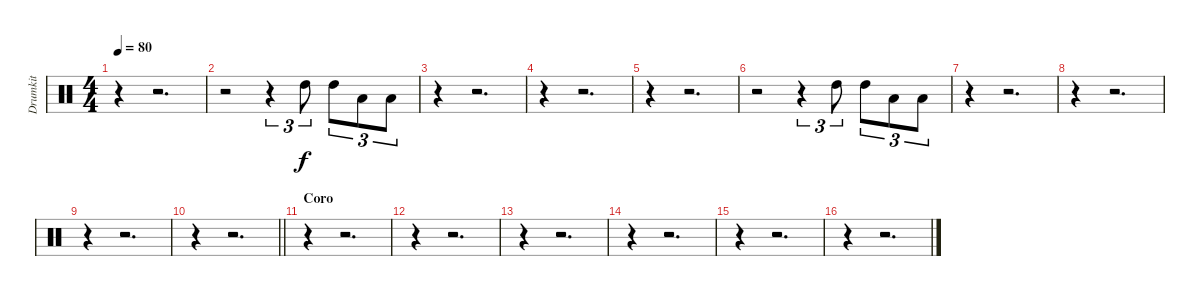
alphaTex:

\track ("Drumkit" "Drumkit") {instrument percussion}
\staff {score}
\articulation defaults
\ts (4 4)
\tempo 80
\clef neutral
\ks c
r.4{dy f} r.2{d} |
r.2 r.4{tu (3 2)} "High Tom (hit)".8{tu (3 2)} "High Tom (hit)".8{tu (3 2)} "Low Tom (hit)".8{tu (3 2)} "Low Tom (hit)".8{tu (3 2)} |
r.4 r.2{d} |
r.4 r.2{d} |
r.4 r.2{d} |
r.2 r.4{tu (3 2)} "High Tom (hit)".8{tu (3 2)} "High Tom (hit)".8{tu (3 2)} "Low Tom (hit)".8{tu (3 2)} "Low Tom (hit)".8{tu (3 2)} |
r.4 r.2{d} |
r.4 r.2{d} |
r.4 r.2{d} |
\barLineRight lightlight
r.4 r.2{d} |
\section ("" "Coro")
r.4 r.2{d} |
r.4 r.2{d} |
r.4 r.2{d} |
r.4 r.2{d} |
r.4 r.2{d} |
r.4 r.2{d}
